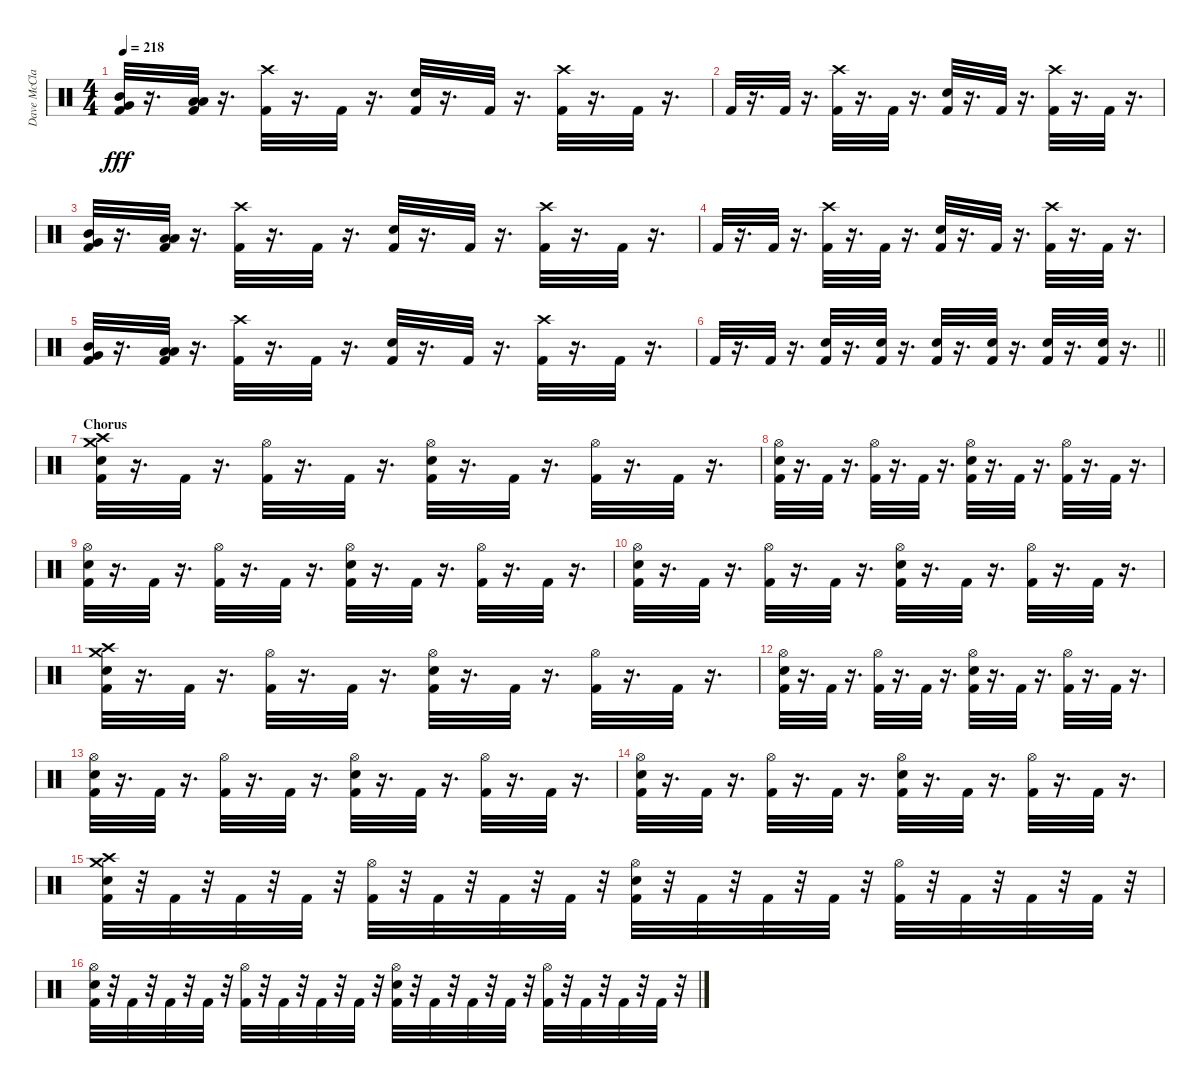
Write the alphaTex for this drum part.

\track ("Dave McClain" "Dave McCla") {instrument percussion}
\staff {score}
\articulation defaults
\ts (4 4)
\tempo 218
\clef neutral
\ks c
("Very Low Tom (hit)" "Mid Tom (hit)" "Kick (hit) 2").32{dy fff} r.16{d} ("Low Tom (hit)" "Low Floor Tom (hit)" "Kick (hit) 2").32 r.16{d} ("Kick (hit) 2" "Crash high (hit)").32 r.16{d} "Kick (hit) 2".32 r.16{d} ("Kick (hit) 2" "Snare (hit) 2").32 r.16{d} "Kick (hit) 2".32 r.16{d} ("Kick (hit) 2" "Crash high (hit)").32 r.16{d} "Kick (hit) 2".32 r.16{d} |
"Kick (hit) 2".32 r.16{d} "Kick (hit) 2".32 r.16{d} ("Kick (hit) 2" "Crash high (hit)").32 r.16{d} "Kick (hit) 2".32 r.16{d} ("Kick (hit) 2" "Snare (hit) 2").32 r.16{d} "Kick (hit) 2".32 r.16{d} ("Kick (hit) 2" "Crash high (hit)").32 r.16{d} "Kick (hit) 2".32 r.16{d} |
("Very Low Tom (hit)" "Mid Tom (hit)" "Kick (hit) 2").32 r.16{d} ("Kick (hit) 2" "Low Tom (hit)" "Low Floor Tom (hit)").32 r.16{d} ("Kick (hit) 2" "Crash high (hit)").32 r.16{d} "Kick (hit) 2".32 r.16{d} ("Kick (hit) 2" "Snare (hit) 2").32 r.16{d} "Kick (hit) 2".32 r.16{d} ("Kick (hit) 2" "Crash high (hit)").32 r.16{d} "Kick (hit) 2".32 r.16{d} |
"Kick (hit) 2".32 r.16{d} "Kick (hit) 2".32 r.16{d} ("Kick (hit) 2" "Crash high (hit)").32 r.16{d} "Kick (hit) 2".32 r.16{d} ("Kick (hit) 2" "Snare (hit) 2").32 r.16{d} "Kick (hit) 2".32 r.16{d} ("Kick (hit) 2" "Crash high (hit)").32 r.16{d} "Kick (hit) 2".32 r.16{d} |
("Very Low Tom (hit)" "Mid Tom (hit)" "Kick (hit) 2").32 r.16{d} ("Low Tom (hit)" "Low Floor Tom (hit)" "Kick (hit) 2").32 r.16{d} ("Kick (hit) 2" "Crash high (hit)").32 r.16{d} "Kick (hit) 2".32 r.16{d} ("Kick (hit) 2" "Snare (hit) 2").32 r.16{d} "Kick (hit) 2".32 r.16{d} ("Kick (hit) 2" "Crash high (hit)").32 r.16{d} "Kick (hit) 2".32 r.16{d} |
\barLineRight lightlight "Kick (hit) 2".32
r.16{d} "Kick (hit) 2".32 r.16{d} ("Snare (hit) 2" "Kick (hit) 2").32 r.16{d} ("Snare (hit) 2" "Kick (hit) 2").32 r.16{d} ("Kick (hit) 2" "Snare (hit) 2").32 r.16{d} ("Snare (hit) 2" "Kick (hit) 2").32 r.16{d} ("Snare (hit) 2" "Kick (hit) 2").32 r.16{d} ("Snare (hit) 2" "Kick (hit) 2").32 r.16{d} |
\section ("" "Chorus")
("Snare (hit) 2" "Crash medium (hit)" "Crash high (hit)" "Kick (hit) 2").32 r.16{d} "Kick (hit) 2".32 r.16{d} ("Hi-Hat (open)" "Kick (hit) 2").32 r.16{d} "Kick (hit) 2".32 r.16{d} ("Snare (hit) 2" "Hi-Hat (open)" "Kick (hit) 2").32 r.16{d} "Kick (hit) 2".32 r.16{d} ("Hi-Hat (open)" "Kick (hit) 2").32 r.16{d} "Kick (hit) 2".32 r.16{d} |
("Snare (hit) 2" "Hi-Hat (open)" "Kick (hit) 2").32 r.16{d} "Kick (hit) 2".32 r.16{d} ("Hi-Hat (open)" "Kick (hit) 2").32 r.16{d} "Kick (hit) 2".32 r.16{d} ("Snare (hit) 2" "Hi-Hat (open)" "Kick (hit) 2").32 r.16{d} "Kick (hit) 2".32 r.16{d} ("Hi-Hat (open)" "Kick (hit) 2").32 r.16{d} "Kick (hit) 2".32 r.16{d} |
("Snare (hit) 2" "Hi-Hat (open)" "Kick (hit) 2").32 r.16{d} "Kick (hit) 2".32 r.16{d} ("Hi-Hat (open)" "Kick (hit) 2").32 r.16{d} "Kick (hit) 2".32 r.16{d} ("Snare (hit) 2" "Hi-Hat (open)" "Kick (hit) 2").32 r.16{d} "Kick (hit) 2".32 r.16{d} ("Hi-Hat (open)" "Kick (hit) 2").32 r.16{d} "Kick (hit) 2".32 r.16{d} |
("Snare (hit) 2" "Hi-Hat (open)" "Kick (hit) 2").32 r.16{d} "Kick (hit) 2".32 r.16{d} ("Hi-Hat (open)" "Kick (hit) 2").32 r.16{d} "Kick (hit) 2".32 r.16{d} ("Snare (hit) 2" "Hi-Hat (open)" "Kick (hit) 2").32 r.16{d} "Kick (hit) 2".32 r.16{d} ("Hi-Hat (open)" "Kick (hit) 2").32 r.16{d} "Kick (hit) 2".32 r.16{d} |
("Snare (hit) 2" "Crash medium (hit)" "Crash high (hit)" "Kick (hit) 2").32 r.16{d} "Kick (hit) 2".32 r.16{d} ("Hi-Hat (open)" "Kick (hit) 2").32 r.16{d} "Kick (hit) 2".32 r.16{d} ("Snare (hit) 2" "Hi-Hat (open)" "Kick (hit) 2").32 r.16{d} "Kick (hit) 2".32 r.16{d} ("Hi-Hat (open)" "Kick (hit) 2").32 r.16{d} "Kick (hit) 2".32 r.16{d} |
("Snare (hit) 2" "Hi-Hat (open)" "Kick (hit) 2").32 r.16{d} "Kick (hit) 2".32 r.16{d} ("Hi-Hat (open)" "Kick (hit) 2").32 r.16{d} "Kick (hit) 2".32 r.16{d} ("Snare (hit) 2" "Hi-Hat (open)" "Kick (hit) 2").32 r.16{d} "Kick (hit) 2".32 r.16{d} ("Hi-Hat (open)" "Kick (hit) 2").32 r.16{d} "Kick (hit) 2".32 r.16{d} |
("Snare (hit) 2" "Hi-Hat (open)" "Kick (hit) 2").32 r.16{d} "Kick (hit) 2".32 r.16{d} ("Hi-Hat (open)" "Kick (hit) 2").32 r.16{d} "Kick (hit) 2".32 r.16{d} ("Snare (hit) 2" "Hi-Hat (open)" "Kick (hit) 2").32 r.16{d} "Kick (hit) 2".32 r.16{d} ("Hi-Hat (open)" "Kick (hit) 2").32 r.16{d} "Kick (hit) 2".32 r.16{d} |
("Snare (hit) 2" "Hi-Hat (open)" "Kick (hit) 2").32 r.16{d} "Kick (hit) 2".32 r.16{d} ("Hi-Hat (open)" "Kick (hit) 2").32 r.16{d} "Kick (hit) 2".32 r.16{d} ("Snare (hit) 2" "Hi-Hat (open)" "Kick (hit) 2").32 r.16{d} "Kick (hit) 2".32 r.16{d} ("Hi-Hat (open)" "Kick (hit) 2").32 r.16{d} "Kick (hit) 2".32 r.16{d} |
("Snare (hit) 2" "Crash medium (hit)" "Crash high (hit)" "Kick (hit) 2").32 r.32 "Kick (hit) 2".32 r.32 "Kick (hit) 2".32 r.32 "Kick (hit) 2".32 r.32 ("Hi-Hat (open)" "Kick (hit) 2").32 r.32 "Kick (hit) 2".32 r.32 "Kick (hit) 2".32 r.32 "Kick (hit) 2".32 r.32 ("Snare (hit) 2" "Hi-Hat (open)" "Kick (hit) 2").32 r.32 "Kick (hit) 2".32 r.32 "Kick (hit) 2".32 r.32 "Kick (hit) 2".32 r.32 ("Hi-Hat (open)" "Kick (hit) 2").32 r.32 "Kick (hit) 2".32 r.32 "Kick (hit) 2".32 r.32 "Kick (hit) 2".32 r.32 |
("Snare (hit) 2" "Hi-Hat (open)" "Kick (hit) 2").32 r.32 "Kick (hit) 2".32 r.32 "Kick (hit) 2".32 r.32 "Kick (hit) 2".32 r.32 ("Hi-Hat (open)" "Kick (hit) 2").32 r.32 "Kick (hit) 2".32 r.32 "Kick (hit) 2".32 r.32 "Kick (hit) 2".32 r.32 ("Snare (hit) 2" "Hi-Hat (open)" "Kick (hit) 2").32 r.32 "Kick (hit) 2".32 r.32 "Kick (hit) 2".32 r.32 "Kick (hit) 2".32 r.32 ("Hi-Hat (open)" "Kick (hit) 2").32 r.32 "Kick (hit) 2".32 r.32 "Kick (hit) 2".32 r.32 "Kick (hit) 2".32 r.32
